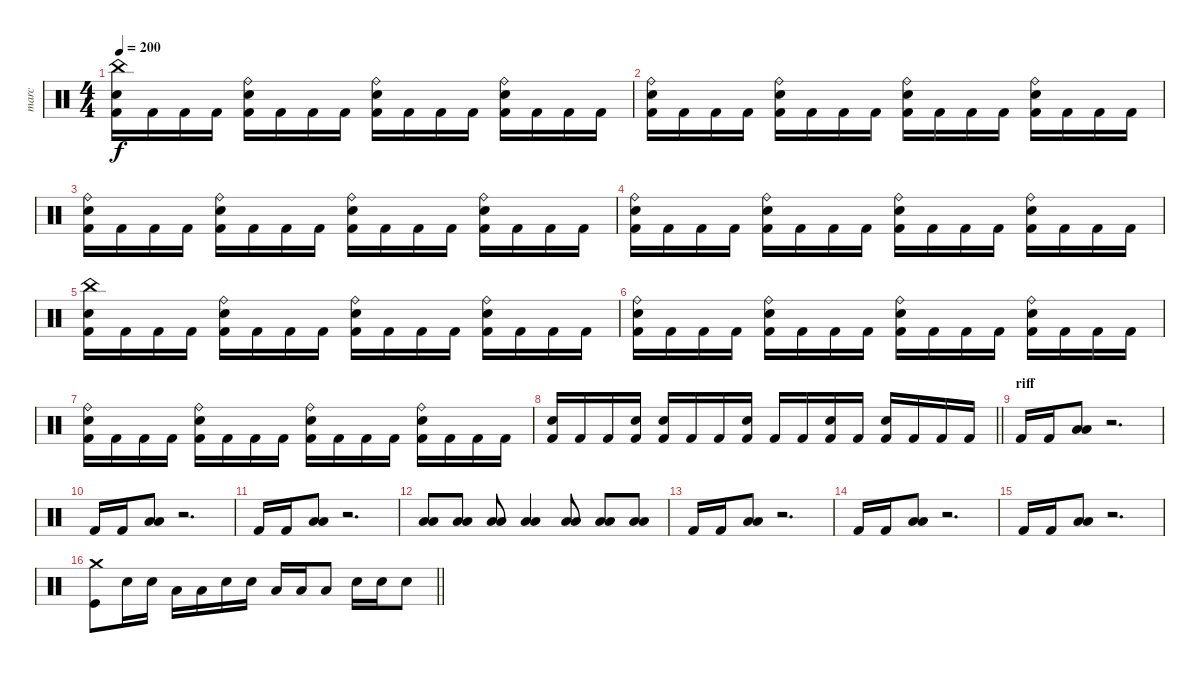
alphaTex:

\track ("marc" "marc") {instrument percussion}
\staff {score}
\articulation defaults
\ts (4 4)
\tempo 200
\clef neutral
\ks c
("China (hit)" "Snare (hit) 2" "Kick (hit) 2").16{dy f} "Kick (hit) 2".16 "Kick (hit) 2".16 "Kick (hit) 2".16 ("Ride (bell)" "Snare (hit) 2" "Kick (hit) 2").16 "Kick (hit) 2".16 "Kick (hit) 2".16 "Kick (hit) 2".16 ("Ride (bell)" "Snare (hit) 2" "Kick (hit) 2").16 "Kick (hit) 2".16 "Kick (hit) 2".16 "Kick (hit) 2".16 ("Ride (bell)" "Snare (hit) 2" "Kick (hit) 2").16 "Kick (hit) 2".16 "Kick (hit) 2".16 "Kick (hit) 2".16 |
("Ride (bell)" "Snare (hit) 2" "Kick (hit) 2").16 "Kick (hit) 2".16 "Kick (hit) 2".16 "Kick (hit) 2".16 ("Ride (bell)" "Snare (hit) 2" "Kick (hit) 2").16 "Kick (hit) 2".16 "Kick (hit) 2".16 "Kick (hit) 2".16 ("Ride (bell)" "Snare (hit) 2" "Kick (hit) 2").16 "Kick (hit) 2".16 "Kick (hit) 2".16 "Kick (hit) 2".16 ("Ride (bell)" "Snare (hit) 2" "Kick (hit) 2").16 "Kick (hit) 2".16 "Kick (hit) 2".16 "Kick (hit) 2".16 |
("Ride (bell)" "Snare (hit) 2" "Kick (hit) 2").16 "Kick (hit) 2".16 "Kick (hit) 2".16 "Kick (hit) 2".16 ("Ride (bell)" "Snare (hit) 2" "Kick (hit) 2").16 "Kick (hit) 2".16 "Kick (hit) 2".16 "Kick (hit) 2".16 ("Ride (bell)" "Snare (hit) 2" "Kick (hit) 2").16 "Kick (hit) 2".16 "Kick (hit) 2".16 "Kick (hit) 2".16 ("Ride (bell)" "Snare (hit) 2" "Kick (hit) 2").16 "Kick (hit) 2".16 "Kick (hit) 2".16 "Kick (hit) 2".16 |
("Ride (bell)" "Snare (hit) 2" "Kick (hit) 2").16 "Kick (hit) 2".16 "Kick (hit) 2".16 "Kick (hit) 2".16 ("Ride (bell)" "Snare (hit) 2" "Kick (hit) 2").16 "Kick (hit) 2".16 "Kick (hit) 2".16 "Kick (hit) 2".16 ("Ride (bell)" "Snare (hit) 2" "Kick (hit) 2").16 "Kick (hit) 2".16 "Kick (hit) 2".16 "Kick (hit) 2".16 ("Ride (bell)" "Snare (hit) 2" "Kick (hit) 2").16 "Kick (hit) 2".16 "Kick (hit) 2".16 "Kick (hit) 2".16 |
("China (hit)" "Snare (hit) 2" "Kick (hit) 2").16 "Kick (hit) 2".16 "Kick (hit) 2".16 "Kick (hit) 2".16 ("Ride (bell)" "Snare (hit) 2" "Kick (hit) 2").16 "Kick (hit) 2".16 "Kick (hit) 2".16 "Kick (hit) 2".16 ("Ride (bell)" "Snare (hit) 2" "Kick (hit) 2").16 "Kick (hit) 2".16 "Kick (hit) 2".16 "Kick (hit) 2".16 ("Ride (bell)" "Snare (hit) 2" "Kick (hit) 2").16 "Kick (hit) 2".16 "Kick (hit) 2".16 "Kick (hit) 2".16 |
("Ride (bell)" "Snare (hit) 2" "Kick (hit) 2").16 "Kick (hit) 2".16 "Kick (hit) 2".16 "Kick (hit) 2".16 ("Ride (bell)" "Snare (hit) 2" "Kick (hit) 2").16 "Kick (hit) 2".16 "Kick (hit) 2".16 "Kick (hit) 2".16 ("Ride (bell)" "Snare (hit) 2" "Kick (hit) 2").16 "Kick (hit) 2".16 "Kick (hit) 2".16 "Kick (hit) 2".16 ("Ride (bell)" "Snare (hit) 2" "Kick (hit) 2").16 "Kick (hit) 2".16 "Kick (hit) 2".16 "Kick (hit) 2".16 |
("Ride (bell)" "Snare (hit) 2" "Kick (hit) 2").16 "Kick (hit) 2".16 "Kick (hit) 2".16 "Kick (hit) 2".16 ("Ride (bell)" "Snare (hit) 2" "Kick (hit) 2").16 "Kick (hit) 2".16 "Kick (hit) 2".16 "Kick (hit) 2".16 ("Ride (bell)" "Snare (hit) 2" "Kick (hit) 2").16 "Kick (hit) 2".16 "Kick (hit) 2".16 "Kick (hit) 2".16 ("Ride (bell)" "Snare (hit) 2" "Kick (hit) 2").16 "Kick (hit) 2".16 "Kick (hit) 2".16 "Kick (hit) 2".16 |
\barLineRight lightlight
("Snare (hit) 2" "Kick (hit) 2").16 "Kick (hit) 2".16 "Kick (hit) 2".16 ("Snare (hit) 2" "Kick (hit) 2").16 ("Snare (hit) 2" "Kick (hit) 2").16 "Kick (hit) 2".16 "Kick (hit) 2".16 ("Snare (hit) 2" "Kick (hit) 2").16 "Kick (hit) 2".16 "Kick (hit) 2".16 ("Snare (hit) 2" "Kick (hit) 2").16 "Kick (hit) 2".16 ("Snare (hit) 2" "Kick (hit) 2").16 "Kick (hit) 2".16 "Kick (hit) 2".16 "Kick (hit) 2".16 |
\section ("" "riff")
"Kick (hit) 2".16 "Kick (hit) 2".16 ("Low Floor Tom (hit)" "Low Tom (hit)").8 r.2{d} |
"Kick (hit) 2".16 "Kick (hit) 2".16 ("Low Floor Tom (hit)" "Low Tom (hit)").8 r.2{d} |
"Kick (hit) 2".16 "Kick (hit) 2".16 ("Low Floor Tom (hit)" "Low Tom (hit)").8 r.2{d} |
("Low Floor Tom (hit)" "Low Tom (hit)").8 ("Low Floor Tom (hit)" "Low Tom (hit)").8 ("Low Floor Tom (hit)" "Low Tom (hit)").8 ("Low Floor Tom (hit)" "Low Tom (hit)").4 ("Low Floor Tom (hit)" "Low Tom (hit)").8 ("Low Floor Tom (hit)" "Low Tom (hit)").8 ("Low Floor Tom (hit)" "Low Tom (hit)").8 |
"Kick (hit) 2".16 "Kick (hit) 2".16 ("Low Floor Tom (hit)" "Low Tom (hit)").8 r.2{d} |
"Kick (hit) 2".16 "Kick (hit) 2".16 ("Low Floor Tom (hit)" "Low Tom (hit)").8 r.2{d} |
"Kick (hit) 2".16 "Kick (hit) 2".16 ("Low Floor Tom (hit)" "Low Tom (hit)").8 r.2{d} |
\barLineRight lightlight
("Crash medium (hit)" "Kick (hit)").8 "Snare (hit) 2".16 "Snare (hit) 2".16 "Low Tom (hit)".16 "Low Tom (hit)".16 "Snare (hit) 2".16 "Snare (hit) 2".16 "Low Tom (hit)".16 "Low Tom (hit)".16 "Low Tom (hit)".8 "Snare (hit) 2".16 "Snare (hit) 2".16 "Snare (hit) 2".8
